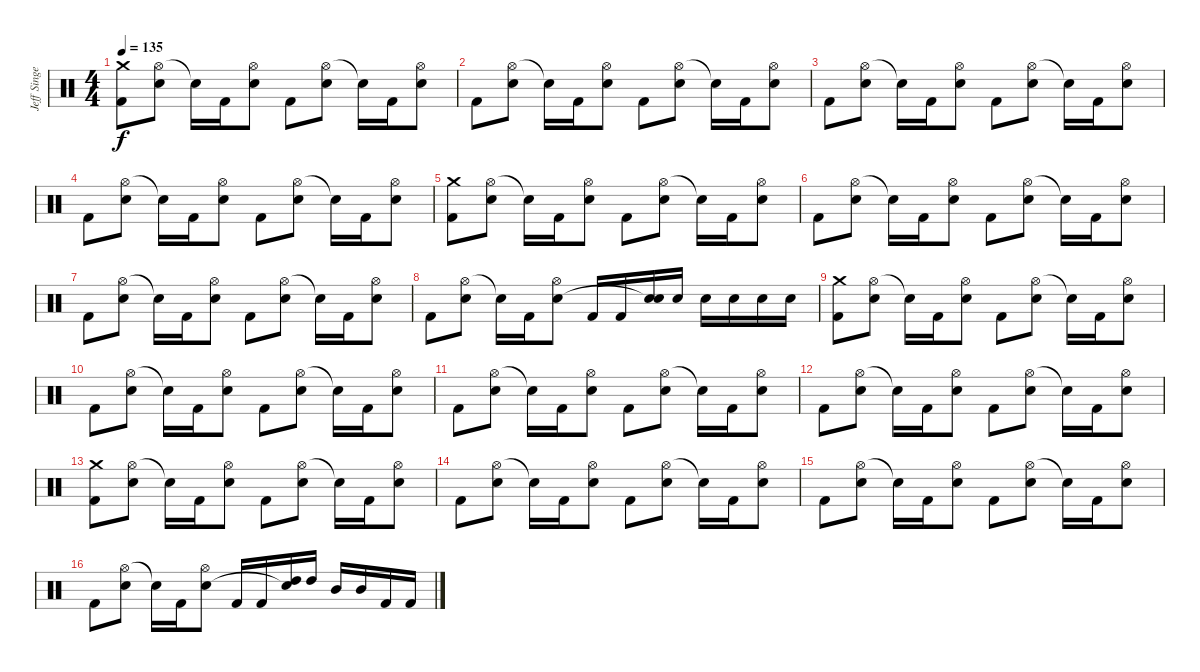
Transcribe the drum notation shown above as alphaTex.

\track ("Jeff Singer" "Jeff Singe") {instrument percussion}
\staff {score}
\articulation defaults
\ts (4 4)
\tempo 135
\clef neutral
\ks c
("Crash medium (hit)" "Kick (hit) 2").8{dy f} ("Hi-Hat (open)" "Snare (hit) 2").8 "Snare (hit)"{t}.16 "Kick (hit) 2".16 ("Hi-Hat (open)" "Snare (hit) 2").8 "Kick (hit) 2".8 ("Hi-Hat (open)" "Snare (hit) 2").8 "Snare (hit)"{t}.16 "Kick (hit) 2".16 ("Hi-Hat (open)" "Snare (hit) 2").8 |
"Kick (hit) 2".8 ("Hi-Hat (open)" "Snare (hit) 2").8 "Snare (hit)"{t}.16 "Kick (hit) 2".16 ("Hi-Hat (open)" "Snare (hit) 2").8 "Kick (hit) 2".8 ("Hi-Hat (open)" "Snare (hit) 2").8 "Snare (hit)"{t}.16 "Kick (hit) 2".16 ("Hi-Hat (open)" "Snare (hit) 2").8 |
"Kick (hit) 2".8 ("Hi-Hat (open)" "Snare (hit) 2").8 "Snare (hit)"{t}.16 "Kick (hit) 2".16 ("Hi-Hat (open)" "Snare (hit) 2").8 "Kick (hit) 2".8 ("Hi-Hat (open)" "Snare (hit) 2").8 "Snare (hit)"{t}.16 "Kick (hit) 2".16 ("Hi-Hat (open)" "Snare (hit) 2").8 |
"Kick (hit) 2".8 ("Hi-Hat (open)" "Snare (hit) 2").8 "Snare (hit)"{t}.16 "Kick (hit) 2".16 ("Hi-Hat (open)" "Snare (hit) 2").8 "Kick (hit) 2".8 ("Hi-Hat (open)" "Snare (hit) 2").8 "Snare (hit)"{t}.16 "Kick (hit) 2".16 ("Hi-Hat (open)" "Snare (hit) 2").8 |
("Crash medium (hit)" "Kick (hit) 2").8 ("Hi-Hat (open)" "Snare (hit) 2").8 "Snare (hit)"{t}.16 "Kick (hit) 2".16 ("Hi-Hat (open)" "Snare (hit) 2").8 "Kick (hit) 2".8 ("Hi-Hat (open)" "Snare (hit) 2").8 "Snare (hit)"{t}.16 "Kick (hit) 2".16 ("Hi-Hat (open)" "Snare (hit) 2").8 |
"Kick (hit) 2".8 ("Hi-Hat (open)" "Snare (hit) 2").8 "Snare (hit)"{t}.16 "Kick (hit) 2".16 ("Hi-Hat (open)" "Snare (hit) 2").8 "Kick (hit) 2".8 ("Hi-Hat (open)" "Snare (hit) 2").8 "Snare (hit)"{t}.16 "Kick (hit) 2".16 ("Hi-Hat (open)" "Snare (hit) 2").8 |
"Kick (hit) 2".8 ("Hi-Hat (open)" "Snare (hit) 2").8 "Snare (hit)"{t}.16 "Kick (hit) 2".16 ("Hi-Hat (open)" "Snare (hit) 2").8 "Kick (hit) 2".8 ("Hi-Hat (open)" "Snare (hit) 2").8 "Snare (hit)"{t}.16 "Kick (hit) 2".16 ("Hi-Hat (open)" "Snare (hit) 2").8 |
"Kick (hit) 2".8 ("Hi-Hat (open)" "Snare (hit) 2").8 "Snare (hit)"{t}.16 "Kick (hit) 2".16 ("Hi-Hat (open)" "Snare (hit) 2").8 "Kick (hit) 2".16 "Kick (hit) 2".16 ("Snare (hit) 2" "Snare (hit)"{t}).16 "Snare (hit) 2".16 "Snare (hit) 2".16 "Snare (hit) 2".16 "Snare (hit) 2".16 "Snare (hit) 2".16 |
("Crash medium (hit)" "Kick (hit) 2").8 ("Hi-Hat (open)" "Snare (hit) 2").8 "Snare (hit)"{t}.16 "Kick (hit) 2".16 ("Hi-Hat (open)" "Snare (hit) 2").8 "Kick (hit) 2".8 ("Hi-Hat (open)" "Snare (hit) 2").8 "Snare (hit)"{t}.16 "Kick (hit) 2".16 ("Hi-Hat (open)" "Snare (hit) 2").8 |
"Kick (hit) 2".8 ("Hi-Hat (open)" "Snare (hit) 2").8 "Snare (hit)"{t}.16 "Kick (hit) 2".16 ("Hi-Hat (open)" "Snare (hit) 2").8 "Kick (hit) 2".8 ("Hi-Hat (open)" "Snare (hit) 2").8 "Snare (hit)"{t}.16 "Kick (hit) 2".16 ("Hi-Hat (open)" "Snare (hit) 2").8 |
"Kick (hit) 2".8 ("Hi-Hat (open)" "Snare (hit) 2").8 "Snare (hit)"{t}.16 "Kick (hit) 2".16 ("Hi-Hat (open)" "Snare (hit) 2").8 "Kick (hit) 2".8 ("Hi-Hat (open)" "Snare (hit) 2").8 "Snare (hit)"{t}.16 "Kick (hit) 2".16 ("Hi-Hat (open)" "Snare (hit) 2").8 |
"Kick (hit) 2".8 ("Hi-Hat (open)" "Snare (hit) 2").8 "Snare (hit)"{t}.16 "Kick (hit) 2".16 ("Hi-Hat (open)" "Snare (hit) 2").8 "Kick (hit) 2".8 ("Hi-Hat (open)" "Snare (hit) 2").8 "Snare (hit)"{t}.16 "Kick (hit) 2".16 ("Hi-Hat (open)" "Snare (hit) 2").8 |
("Crash medium (hit)" "Kick (hit) 2").8 ("Hi-Hat (open)" "Snare (hit) 2").8 "Snare (hit)"{t}.16 "Kick (hit) 2".16 ("Hi-Hat (open)" "Snare (hit) 2").8 "Kick (hit) 2".8 ("Hi-Hat (open)" "Snare (hit) 2").8 "Snare (hit)"{t}.16 "Kick (hit) 2".16 ("Hi-Hat (open)" "Snare (hit) 2").8 |
"Kick (hit) 2".8 ("Hi-Hat (open)" "Snare (hit) 2").8 "Snare (hit)"{t}.16 "Kick (hit) 2".16 ("Hi-Hat (open)" "Snare (hit) 2").8 "Kick (hit) 2".8 ("Hi-Hat (open)" "Snare (hit) 2").8 "Snare (hit)"{t}.16 "Kick (hit) 2".16 ("Hi-Hat (open)" "Snare (hit) 2").8 |
"Kick (hit) 2".8 ("Hi-Hat (open)" "Snare (hit) 2").8 "Snare (hit)"{t}.16 "Kick (hit) 2".16 ("Hi-Hat (open)" "Snare (hit) 2").8 "Kick (hit) 2".8 ("Hi-Hat (open)" "Snare (hit) 2").8 "Snare (hit)"{t}.16 "Kick (hit) 2".16 ("Hi-Hat (open)" "Snare (hit) 2").8 |
"Kick (hit) 2".8 ("Hi-Hat (open)" "Snare (hit) 2").8 "Snare (hit)"{t}.16 "Kick (hit) 2".16 ("Hi-Hat (open)" "Snare (hit) 2").8 "Kick (hit) 2".16 "Kick (hit) 2".16 ("High Tom (hit)" "Snare (hit)"{t}).16 "High Tom (hit)".16 "Mid Tom (hit)".16 "Mid Tom (hit)".16 "Kick (hit) 2".16 "Kick (hit) 2".16
